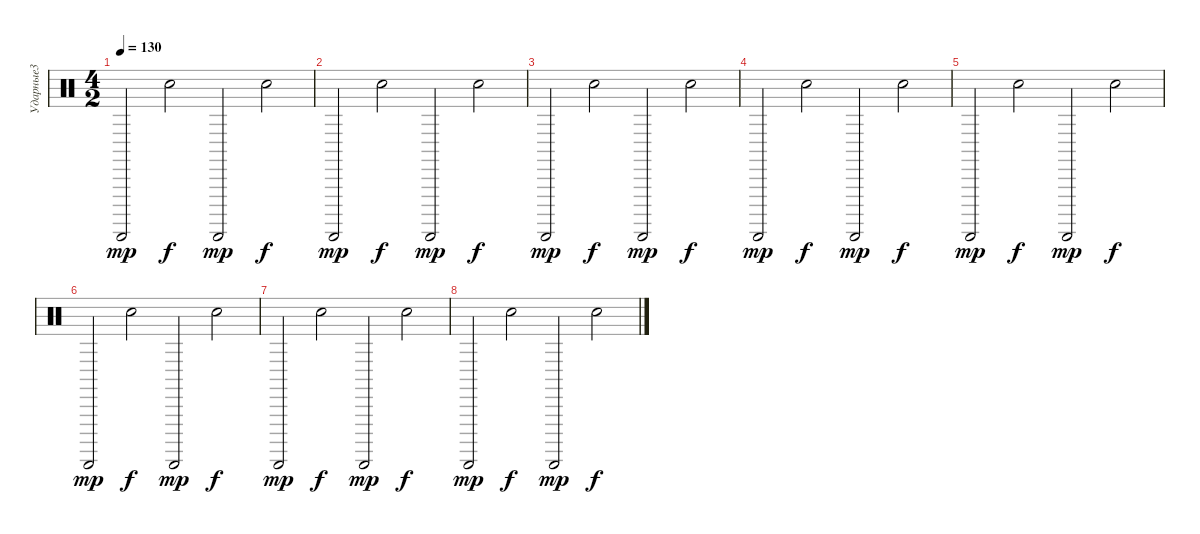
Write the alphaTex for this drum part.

\track ("Ударные3" "Ударные3") {instrument percussion}
\staff {score}
\articulation defaults
\ts (4 2)
\tempo 130
\clef neutral
\ks c "Guiro (scrap-return)".2{dy mp} "Hand Clap (hit)".2{dy f} "Guiro (scrap-return)".2{dy mp} "Hand Clap (hit)".2{dy f}
|
"Guiro (scrap-return)".2{dy mp} "Hand Clap (hit)".2{dy f} "Guiro (scrap-return)".2{dy mp} "Hand Clap (hit)".2{dy f} |
"Guiro (scrap-return)".2{dy mp} "Hand Clap (hit)".2{dy f} "Guiro (scrap-return)".2{dy mp} "Hand Clap (hit)".2{dy f} |
"Guiro (scrap-return)".2{dy mp} "Hand Clap (hit)".2{dy f} "Guiro (scrap-return)".2{dy mp} "Hand Clap (hit)".2{dy f} |
"Guiro (scrap-return)".2{dy mp} "Hand Clap (hit)".2{dy f} "Guiro (scrap-return)".2{dy mp} "Hand Clap (hit)".2{dy f} |
"Guiro (scrap-return)".2{dy mp} "Hand Clap (hit)".2{dy f} "Guiro (scrap-return)".2{dy mp} "Hand Clap (hit)".2{dy f} |
"Guiro (scrap-return)".2{dy mp} "Hand Clap (hit)".2{dy f} "Guiro (scrap-return)".2{dy mp} "Hand Clap (hit)".2{dy f} |
"Guiro (scrap-return)".2{dy mp} "Hand Clap (hit)".2{dy f} "Guiro (scrap-return)".2{dy mp} "Hand Clap (hit)".2{dy f}
